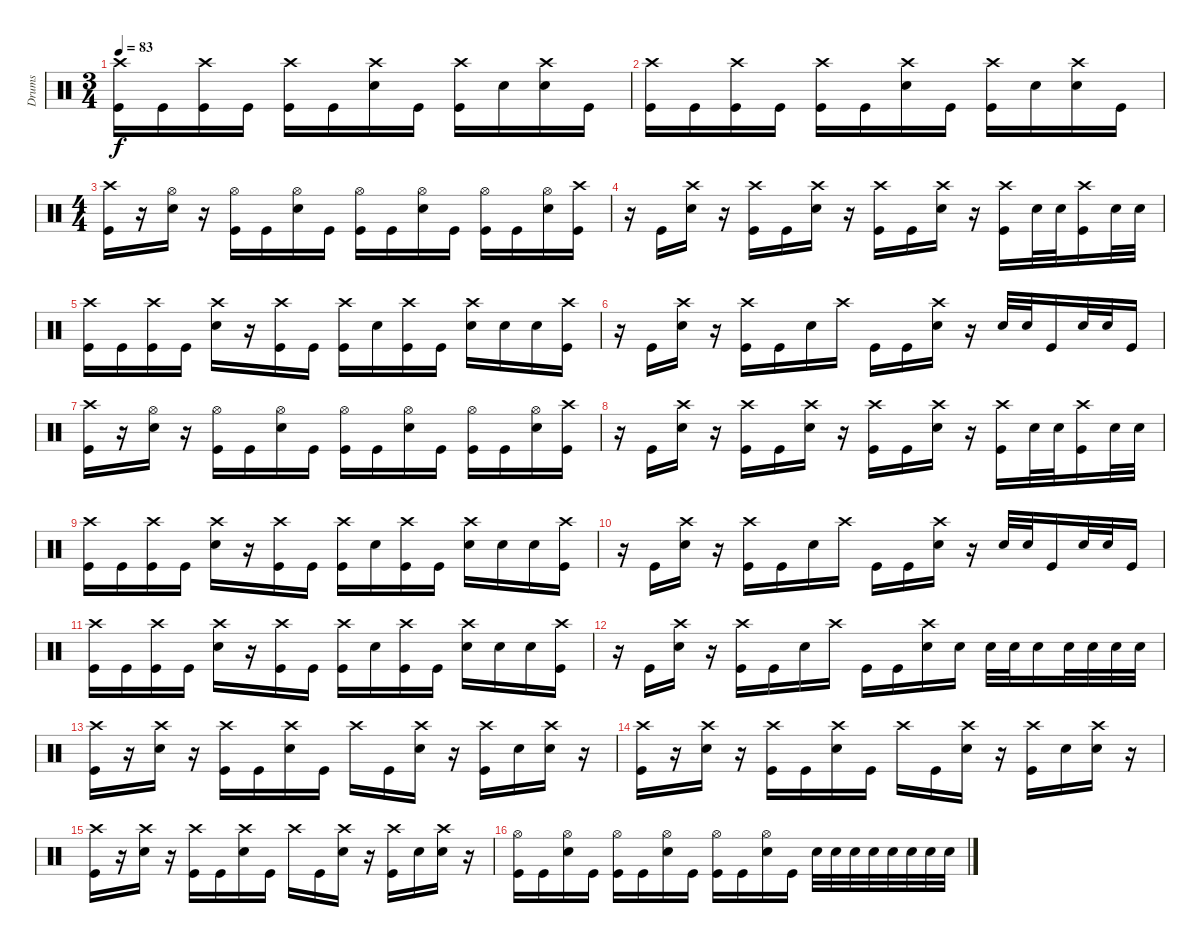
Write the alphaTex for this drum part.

\track ("Drums" "Drums") {instrument percussion}
\staff {score}
\articulation defaults
\ts (3 4)
\tempo 83
\clef neutral
\ks c
("Crash high (hit)" "Kick (hit)").16{dy f} "Kick (hit)".16 ("Crash high (hit)" "Kick (hit)").16 "Kick (hit)".16 ("Crash high (hit)" "Kick (hit)").16 "Kick (hit)".16 ("Crash high (hit)" "Snare (hit) 2").16 "Kick (hit)".16 ("Crash high (hit)" "Kick (hit)").16 "Snare (hit) 2".16 ("Crash high (hit)" "Snare (hit) 2").16 "Kick (hit)".16 |
("Crash high (hit)" "Kick (hit)").16 "Kick (hit)".16 ("Crash high (hit)" "Kick (hit)").16 "Kick (hit)".16 ("Crash high (hit)" "Kick (hit)").16 "Kick (hit)".16 ("Crash high (hit)" "Snare (hit) 2").16 "Kick (hit)".16 ("Crash high (hit)" "Kick (hit)").16 "Snare (hit) 2".16 ("Crash high (hit)" "Snare (hit) 2").16 "Kick (hit)".16 |
\ts (4 4)
("Crash high (hit)" "Kick (hit)").16 r.16 ("Hi-Hat (open)" "Snare (hit) 2").16 r.16 ("Hi-Hat (open)" "Kick (hit)").16 "Kick (hit)".16 ("Hi-Hat (open)" "Snare (hit) 2").16 "Kick (hit)".16 ("Hi-Hat (open)" "Kick (hit)").16 "Kick (hit)".16 ("Hi-Hat (open)" "Snare (hit) 2").16 "Kick (hit)".16 ("Hi-Hat (open)" "Kick (hit)").16 "Kick (hit)".16 ("Hi-Hat (open)" "Snare (hit) 2").16 ("Crash high (hit)" "Kick (hit)").16 |
r.16 "Kick (hit)".16 ("Crash high (hit)" "Snare (hit) 2").16 r.16 ("Crash high (hit)" "Kick (hit)").16 "Kick (hit)".16 ("Crash high (hit)" "Snare (hit) 2").16 r.16 ("Crash high (hit)" "Kick (hit)").16 "Kick (hit)".16 ("Crash high (hit)" "Snare (hit) 2").16 r.16 ("Crash high (hit)" "Kick (hit)").16 "Snare (hit) 2".32 "Snare (hit) 2".32 ("Crash high (hit)" "Kick (hit)").16 "Snare (hit) 2".32 "Snare (hit) 2".32 |
("Crash high (hit)" "Kick (hit)").16 "Kick (hit)".16 ("Crash high (hit)" "Kick (hit)").16 "Kick (hit)".16 ("Crash high (hit)" "Snare (hit) 2").16 r.16 ("Crash high (hit)" "Kick (hit)").16 "Kick (hit)".16 ("Crash high (hit)" "Kick (hit)").16 "Snare (hit) 2".16 ("Crash high (hit)" "Kick (hit)").16 "Kick (hit)".16 ("Crash high (hit)" "Snare (hit) 2").16 "Snare (hit) 2".16 "Snare (hit) 2".16 ("Crash high (hit)" "Kick (hit)").16 |
r.16 "Kick (hit)".16 ("Crash high (hit)" "Snare (hit) 2").16 r.16 ("Crash high (hit)" "Kick (hit)").16 "Kick (hit)".16 "Snare (hit) 2".16 "Crash high (hit)".16 "Kick (hit)".16 "Kick (hit)".16 ("Crash high (hit)" "Snare (hit) 2").16 r.16 "Snare (hit) 2".32 "Snare (hit) 2".32 "Kick (hit)".16 "Snare (hit) 2".32 "Snare (hit) 2".32 "Kick (hit)".16 |
("Crash high (hit)" "Kick (hit)").16 r.16 ("Hi-Hat (open)" "Snare (hit) 2").16 r.16 ("Hi-Hat (open)" "Kick (hit)").16 "Kick (hit)".16 ("Hi-Hat (open)" "Snare (hit) 2").16 "Kick (hit)".16 ("Hi-Hat (open)" "Kick (hit)").16 "Kick (hit)".16 ("Hi-Hat (open)" "Snare (hit) 2").16 "Kick (hit)".16 ("Hi-Hat (open)" "Kick (hit)").16 "Kick (hit)".16 ("Hi-Hat (open)" "Snare (hit) 2").16 ("Crash high (hit)" "Kick (hit)").16 |
r.16 "Kick (hit)".16 ("Crash high (hit)" "Snare (hit) 2").16 r.16 ("Crash high (hit)" "Kick (hit)").16 "Kick (hit)".16 ("Crash high (hit)" "Snare (hit) 2").16 r.16 ("Crash high (hit)" "Kick (hit)").16 "Kick (hit)".16 ("Crash high (hit)" "Snare (hit) 2").16 r.16 ("Crash high (hit)" "Kick (hit)").16 "Snare (hit) 2".32 "Snare (hit) 2".32 ("Crash high (hit)" "Kick (hit)").16 "Snare (hit) 2".32 "Snare (hit) 2".32 |
("Crash high (hit)" "Kick (hit)").16 "Kick (hit)".16 ("Crash high (hit)" "Kick (hit)").16 "Kick (hit)".16 ("Crash high (hit)" "Snare (hit) 2").16 r.16 ("Crash high (hit)" "Kick (hit)").16 "Kick (hit)".16 ("Crash high (hit)" "Kick (hit)").16 "Snare (hit) 2".16 ("Crash high (hit)" "Kick (hit)").16 "Kick (hit)".16 ("Crash high (hit)" "Snare (hit) 2").16 "Snare (hit) 2".16 "Snare (hit) 2".16 ("Crash high (hit)" "Kick (hit)").16 |
r.16 "Kick (hit)".16 ("Crash high (hit)" "Snare (hit) 2").16 r.16 ("Crash high (hit)" "Kick (hit)").16 "Kick (hit)".16 "Snare (hit) 2".16 "Crash high (hit)".16 "Kick (hit)".16 "Kick (hit)".16 ("Crash high (hit)" "Snare (hit) 2").16 r.16 "Snare (hit) 2".32 "Snare (hit) 2".32 "Kick (hit)".16 "Snare (hit) 2".32 "Snare (hit) 2".32 "Kick (hit)".16 |
("Crash high (hit)" "Kick (hit)").16 "Kick (hit)".16 ("Crash high (hit)" "Kick (hit)").16 "Kick (hit)".16 ("Crash high (hit)" "Snare (hit) 2").16 r.16 ("Crash high (hit)" "Kick (hit)").16 "Kick (hit)".16 ("Crash high (hit)" "Kick (hit)").16 "Snare (hit) 2".16 ("Crash high (hit)" "Kick (hit)").16 "Kick (hit)".16 ("Crash high (hit)" "Snare (hit) 2").16 "Snare (hit) 2".16 "Snare (hit) 2".16 ("Crash high (hit)" "Kick (hit)").16 |
r.16 "Kick (hit)".16 ("Crash high (hit)" "Snare (hit) 2").16 r.16 ("Crash high (hit)" "Kick (hit)").16 "Kick (hit)".16 "Snare (hit) 2".16 "Crash high (hit)".16 "Kick (hit)".16 "Kick (hit)".16 ("Crash high (hit)" "Snare (hit) 2").16 "Snare (hit) 2".16 "Snare (hit) 2".32 "Snare (hit) 2".32 "Snare (hit) 2".16 "Snare (hit) 2".32 "Snare (hit) 2".32 "Snare (hit) 2".32 "Snare (hit) 2".32 |
("Crash high (hit)" "Kick (hit)").16 r.16 ("Crash high (hit)" "Snare (hit) 2").16 r.16 ("Crash high (hit)" "Kick (hit)").16 "Kick (hit)".16 ("Crash high (hit)" "Snare (hit) 2").16 "Kick (hit)".16 "Crash high (hit)".16 "Kick (hit)".16 ("Crash high (hit)" "Snare (hit) 2").16 r.16 ("Crash high (hit)" "Kick (hit)").16 "Snare (hit) 2".16 ("Crash high (hit)" "Snare (hit) 2").16 r.16 |
("Crash high (hit)" "Kick (hit)").16 r.16 ("Crash high (hit)" "Snare (hit) 2").16 r.16 ("Crash high (hit)" "Kick (hit)").16 "Kick (hit)".16 ("Crash high (hit)" "Snare (hit) 2").16 "Kick (hit)".16 "Crash high (hit)".16 "Kick (hit)".16 ("Crash high (hit)" "Snare (hit) 2").16 r.16 ("Crash high (hit)" "Kick (hit)").16 "Snare (hit) 2".16 ("Crash high (hit)" "Snare (hit) 2").16 r.16 |
("Crash high (hit)" "Kick (hit)").16 r.16 ("Crash high (hit)" "Snare (hit) 2").16 r.16 ("Crash high (hit)" "Kick (hit)").16 "Kick (hit)".16 ("Crash high (hit)" "Snare (hit) 2").16 "Kick (hit)".16 "Crash high (hit)".16 "Kick (hit)".16 ("Crash high (hit)" "Snare (hit) 2").16 r.16 ("Crash high (hit)" "Kick (hit)").16 "Snare (hit) 2".16 ("Crash high (hit)" "Snare (hit) 2").16 r.16 |
("Hi-Hat (open)" "Kick (hit)").16 "Kick (hit)".16 ("Hi-Hat (open)" "Snare (hit) 2").16 "Kick (hit)".16 ("Hi-Hat (open)" "Kick (hit)").16 "Kick (hit)".16 ("Hi-Hat (open)" "Snare (hit) 2").16 "Kick (hit)".16 ("Hi-Hat (open)" "Kick (hit)").16 "Kick (hit)".16 ("Hi-Hat (open)" "Snare (hit) 2").16 "Kick (hit)".16 "Snare (hit) 2".32 "Snare (hit) 2".32 "Snare (hit) 2".32 "Snare (hit) 2".32 "Snare (hit) 2".32 "Snare (hit) 2".32 "Snare (hit) 2".32 "Snare (hit) 2".32
